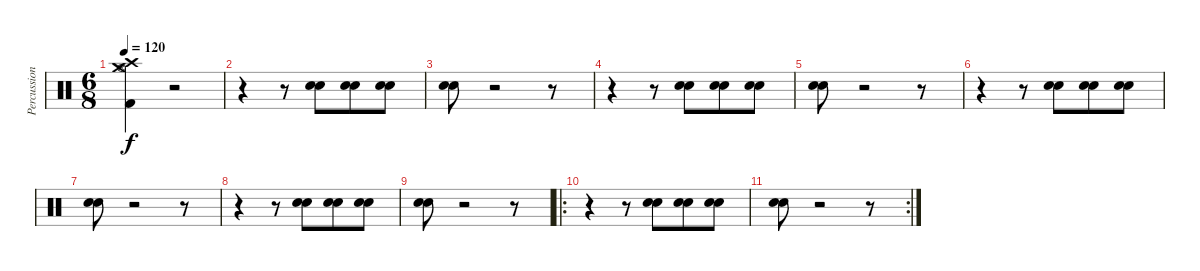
\track ("Percussions" "Percussion") {instrument percussion}
\staff {score}
\articulation defaults
\ts (6 8)
\tempo 120
\clef neutral
\ks c
("Crash high (hit)" "Crash medium (hit)" "Hi-Hat (open)" "Kick (hit) 2").4{dy f} r.2 |
r.4 r.8 ("Electric Snare (hit)" "Electric Snare (hit)").8 ("Electric Snare (hit)" "Electric Snare (hit)").8 ("Electric Snare (hit)" "Electric Snare (hit)").8 |
("Electric Snare (hit)" "Electric Snare (hit)").8 r.2 r.8 |
r.4 r.8 ("Electric Snare (hit)" "Electric Snare (hit)").8 ("Electric Snare (hit)" "Electric Snare (hit)").8 ("Electric Snare (hit)" "Electric Snare (hit)").8 |
("Electric Snare (hit)" "Electric Snare (hit)").8 r.2 r.8 |
r.4 r.8 ("Electric Snare (hit)" "Electric Snare (hit)").8 ("Electric Snare (hit)" "Electric Snare (hit)").8 ("Electric Snare (hit)" "Electric Snare (hit)").8 |
("Electric Snare (hit)" "Electric Snare (hit)").8 r.2 r.8 |
r.4 r.8 ("Electric Snare (hit)" "Electric Snare (hit)").8 ("Electric Snare (hit)" "Electric Snare (hit)").8 ("Electric Snare (hit)" "Electric Snare (hit)").8 |
("Electric Snare (hit)" "Electric Snare (hit)").8 r.2 r.8 |
\ro
r.4 r.8 ("Electric Snare (hit)" "Electric Snare (hit)").8 ("Electric Snare (hit)" "Electric Snare (hit)").8 ("Electric Snare (hit)" "Electric Snare (hit)").8 |
\rc 2
("Electric Snare (hit)" "Electric Snare (hit)").8 r.2 r.8
